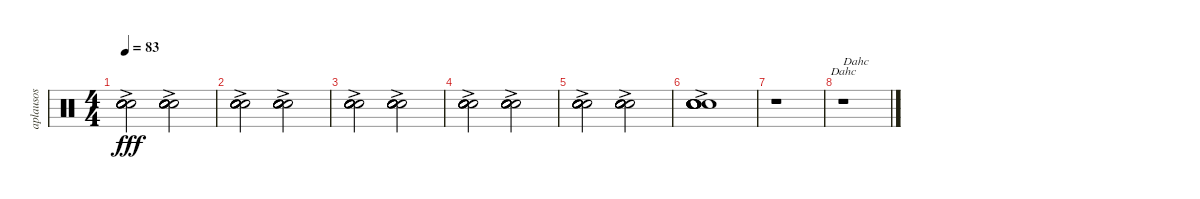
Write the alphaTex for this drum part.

\track ("aplausos" "aplausos") {instrument percussion}
\staff {score}
\articulation defaults
\chord ("Dahc")
\ts (4 4)
\tempo 83
\clef neutral
\ks c
("Hand Clap (hit)"{ac} "Hand Clap (hit)"{ac} "Hand Clap (hit)"{ac} "Hand Clap (hit)"{ac} "Hand Clap (hit)"{ac} "Hand Clap (hit)"{ac}).2{dy fff} ("Hand Clap (hit)"{ac} "Hand Clap (hit)"{ac} "Hand Clap (hit)"{ac} "Hand Clap (hit)"{ac} "Hand Clap (hit)"{ac} "Hand Clap (hit)"{ac}).2 |
("Hand Clap (hit)"{ac} "Hand Clap (hit)"{ac} "Hand Clap (hit)"{ac} "Hand Clap (hit)"{ac} "Hand Clap (hit)"{ac} "Hand Clap (hit)"{ac}).2 ("Hand Clap (hit)"{ac} "Hand Clap (hit)"{ac} "Hand Clap (hit)"{ac} "Hand Clap (hit)"{ac} "Hand Clap (hit)"{ac} "Hand Clap (hit)"{ac}).2 |
("Hand Clap (hit)"{ac} "Hand Clap (hit)"{ac} "Hand Clap (hit)"{ac} "Hand Clap (hit)"{ac} "Hand Clap (hit)"{ac} "Hand Clap (hit)"{ac}).2 ("Hand Clap (hit)"{ac} "Hand Clap (hit)"{ac} "Hand Clap (hit)"{ac} "Hand Clap (hit)"{ac} "Hand Clap (hit)"{ac} "Hand Clap (hit)"{ac}).2 |
("Hand Clap (hit)"{ac} "Hand Clap (hit)"{ac} "Hand Clap (hit)"{ac} "Hand Clap (hit)"{ac} "Hand Clap (hit)"{ac} "Hand Clap (hit)"{ac}).2 ("Hand Clap (hit)"{ac} "Hand Clap (hit)"{ac} "Hand Clap (hit)"{ac} "Hand Clap (hit)"{ac} "Hand Clap (hit)"{ac} "Hand Clap (hit)"{ac}).2 |
("Hand Clap (hit)"{ac} "Hand Clap (hit)"{ac} "Hand Clap (hit)"{ac} "Hand Clap (hit)"{ac} "Hand Clap (hit)"{ac} "Hand Clap (hit)"{ac}).2 ("Hand Clap (hit)"{ac} "Hand Clap (hit)"{ac} "Hand Clap (hit)"{ac} "Hand Clap (hit)"{ac} "Hand Clap (hit)"{ac} "Hand Clap (hit)"{ac}).2 |
("Hand Clap (hit)"{ac} "Hand Clap (hit)"{ac} "Hand Clap (hit)"{ac} "Hand Clap (hit)"{ac} "Hand Clap (hit)"{ac} "Hand Clap (hit)"{ac}).1 |
r.1 |
r.1{ch "Dahc" txt "Dahc"}
